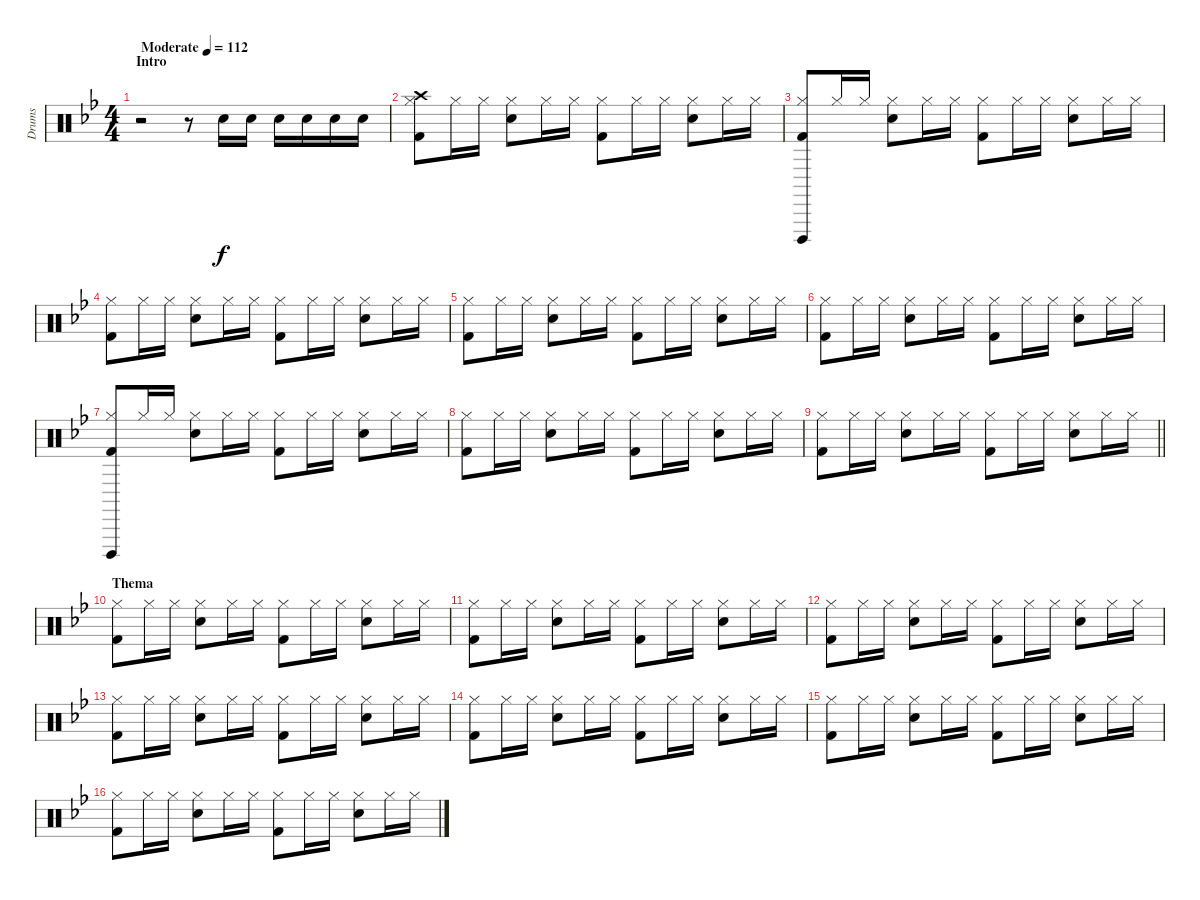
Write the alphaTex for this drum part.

\track ("Drums" "Drums") {instrument percussion}
\staff {score}
\articulation defaults
\ts (4 4)
\section ("" "Intro ")
\tempo (112 "Moderate")
\clef neutral
\ks bb
r.2{dy f} r.8 "Snare (hit) 2".16 "Snare (hit) 2".16 "Snare (hit) 2".16 "Snare (hit) 2".16 "Snare (hit) 2".16 "Snare (hit) 2".16 |
("Hi-Hat (closed)" "Crash high (hit)" "Kick (hit) 2").8 "Hi-Hat (closed)".16 "Hi-Hat (closed)".16 ("Snare (hit) 2" "Hi-Hat (closed)").8 "Hi-Hat (closed)".16 "Hi-Hat (closed)".16 ("Hi-Hat (closed)" "Kick (hit) 2").8 "Hi-Hat (closed)".16 "Hi-Hat (closed)".16 ("Snare (hit) 2" "Hi-Hat (closed)").8 "Hi-Hat (closed)".16 "Hi-Hat (closed)".16 |
("Hi-Hat (closed)" "Kick (hit) 2" "Cuica (open)").8 "Hi-Hat (closed)".16 "Hi-Hat (closed)".16 ("Snare (hit) 2" "Hi-Hat (closed)").8 "Hi-Hat (closed)".16 "Hi-Hat (closed)".16 ("Hi-Hat (closed)" "Kick (hit) 2").8 "Hi-Hat (closed)".16 "Hi-Hat (closed)".16 ("Snare (hit) 2" "Hi-Hat (closed)").8 "Hi-Hat (closed)".16 "Hi-Hat (closed)".16 |
("Hi-Hat (closed)" "Kick (hit) 2").8 "Hi-Hat (closed)".16 "Hi-Hat (closed)".16 ("Snare (hit) 2" "Hi-Hat (closed)").8 "Hi-Hat (closed)".16 "Hi-Hat (closed)".16 ("Hi-Hat (closed)" "Kick (hit) 2").8 "Hi-Hat (closed)".16 "Hi-Hat (closed)".16 ("Snare (hit) 2" "Hi-Hat (closed)").8 "Hi-Hat (closed)".16 "Hi-Hat (closed)".16 |
("Hi-Hat (closed)" "Kick (hit) 2").8 "Hi-Hat (closed)".16 "Hi-Hat (closed)".16 ("Snare (hit) 2" "Hi-Hat (closed)").8 "Hi-Hat (closed)".16 "Hi-Hat (closed)".16 ("Hi-Hat (closed)" "Kick (hit) 2").8 "Hi-Hat (closed)".16 "Hi-Hat (closed)".16 ("Snare (hit) 2" "Hi-Hat (closed)").8 "Hi-Hat (closed)".16 "Hi-Hat (closed)".16 |
("Hi-Hat (closed)" "Kick (hit) 2").8 "Hi-Hat (closed)".16 "Hi-Hat (closed)".16 ("Snare (hit) 2" "Hi-Hat (closed)").8 "Hi-Hat (closed)".16 "Hi-Hat (closed)".16 ("Hi-Hat (closed)" "Kick (hit) 2").8 "Hi-Hat (closed)".16 "Hi-Hat (closed)".16 ("Snare (hit) 2" "Hi-Hat (closed)").8 "Hi-Hat (closed)".16 "Hi-Hat (closed)".16 |
("Hi-Hat (closed)" "Kick (hit) 2" "Cuica (open)").8 "Hi-Hat (closed)".16 "Hi-Hat (closed)".16 ("Snare (hit) 2" "Hi-Hat (closed)").8 "Hi-Hat (closed)".16 "Hi-Hat (closed)".16 ("Hi-Hat (closed)" "Kick (hit) 2").8 "Hi-Hat (closed)".16 "Hi-Hat (closed)".16 ("Snare (hit) 2" "Hi-Hat (closed)").8 "Hi-Hat (closed)".16 "Hi-Hat (closed)".16 |
("Hi-Hat (closed)" "Kick (hit) 2").8 "Hi-Hat (closed)".16 "Hi-Hat (closed)".16 ("Snare (hit) 2" "Hi-Hat (closed)").8 "Hi-Hat (closed)".16 "Hi-Hat (closed)".16 ("Hi-Hat (closed)" "Kick (hit) 2").8 "Hi-Hat (closed)".16 "Hi-Hat (closed)".16 ("Snare (hit) 2" "Hi-Hat (closed)").8 "Hi-Hat (closed)".16 "Hi-Hat (closed)".16 |
\barLineRight lightlight
("Hi-Hat (closed)" "Kick (hit) 2").8 "Hi-Hat (closed)".16 "Hi-Hat (closed)".16 ("Snare (hit) 2" "Hi-Hat (closed)").8 "Hi-Hat (closed)".16 "Hi-Hat (closed)".16 ("Hi-Hat (closed)" "Kick (hit) 2").8 "Hi-Hat (closed)".16 "Hi-Hat (closed)".16 ("Snare (hit) 2" "Hi-Hat (closed)").8 "Hi-Hat (closed)".16 "Hi-Hat (closed)".16 |
\section ("" "Thema")
("Hi-Hat (closed)" "Kick (hit) 2").8 "Hi-Hat (closed)".16 "Hi-Hat (closed)".16 ("Snare (hit) 2" "Hi-Hat (closed)").8 "Hi-Hat (closed)".16 "Hi-Hat (closed)".16 ("Hi-Hat (closed)" "Kick (hit) 2").8 "Hi-Hat (closed)".16 "Hi-Hat (closed)".16 ("Snare (hit) 2" "Hi-Hat (closed)").8 "Hi-Hat (closed)".16 "Hi-Hat (closed)".16 |
("Hi-Hat (closed)" "Kick (hit) 2").8 "Hi-Hat (closed)".16 "Hi-Hat (closed)".16 ("Snare (hit) 2" "Hi-Hat (closed)").8 "Hi-Hat (closed)".16 "Hi-Hat (closed)".16 ("Hi-Hat (closed)" "Kick (hit) 2").8 "Hi-Hat (closed)".16 "Hi-Hat (closed)".16 ("Snare (hit) 2" "Hi-Hat (closed)").8 "Hi-Hat (closed)".16 "Hi-Hat (closed)".16 |
("Hi-Hat (closed)" "Kick (hit) 2").8 "Hi-Hat (closed)".16 "Hi-Hat (closed)".16 ("Snare (hit) 2" "Hi-Hat (closed)").8 "Hi-Hat (closed)".16 "Hi-Hat (closed)".16 ("Hi-Hat (closed)" "Kick (hit) 2").8 "Hi-Hat (closed)".16 "Hi-Hat (closed)".16 ("Snare (hit) 2" "Hi-Hat (closed)").8 "Hi-Hat (closed)".16 "Hi-Hat (closed)".16 |
("Hi-Hat (closed)" "Kick (hit) 2").8 "Hi-Hat (closed)".16 "Hi-Hat (closed)".16 ("Snare (hit) 2" "Hi-Hat (closed)").8 "Hi-Hat (closed)".16 "Hi-Hat (closed)".16 ("Hi-Hat (closed)" "Kick (hit) 2").8 "Hi-Hat (closed)".16 "Hi-Hat (closed)".16 ("Snare (hit) 2" "Hi-Hat (closed)").8 "Hi-Hat (closed)".16 "Hi-Hat (closed)".16 |
("Hi-Hat (closed)" "Kick (hit) 2").8 "Hi-Hat (closed)".16 "Hi-Hat (closed)".16 ("Snare (hit) 2" "Hi-Hat (closed)").8 "Hi-Hat (closed)".16 "Hi-Hat (closed)".16 ("Hi-Hat (closed)" "Kick (hit) 2").8 "Hi-Hat (closed)".16 "Hi-Hat (closed)".16 ("Snare (hit) 2" "Hi-Hat (closed)").8 "Hi-Hat (closed)".16 "Hi-Hat (closed)".16 |
("Hi-Hat (closed)" "Kick (hit) 2").8 "Hi-Hat (closed)".16 "Hi-Hat (closed)".16 ("Snare (hit) 2" "Hi-Hat (closed)").8 "Hi-Hat (closed)".16 "Hi-Hat (closed)".16 ("Hi-Hat (closed)" "Kick (hit) 2").8 "Hi-Hat (closed)".16 "Hi-Hat (closed)".16 ("Snare (hit) 2" "Hi-Hat (closed)").8 "Hi-Hat (closed)".16 "Hi-Hat (closed)".16 |
("Hi-Hat (closed)" "Kick (hit) 2").8 "Hi-Hat (closed)".16 "Hi-Hat (closed)".16 ("Snare (hit) 2" "Hi-Hat (closed)").8 "Hi-Hat (closed)".16 "Hi-Hat (closed)".16 ("Hi-Hat (closed)" "Kick (hit) 2").8 "Hi-Hat (closed)".16 "Hi-Hat (closed)".16 ("Snare (hit) 2" "Hi-Hat (closed)").8 "Hi-Hat (closed)".16 "Hi-Hat (closed)".16
